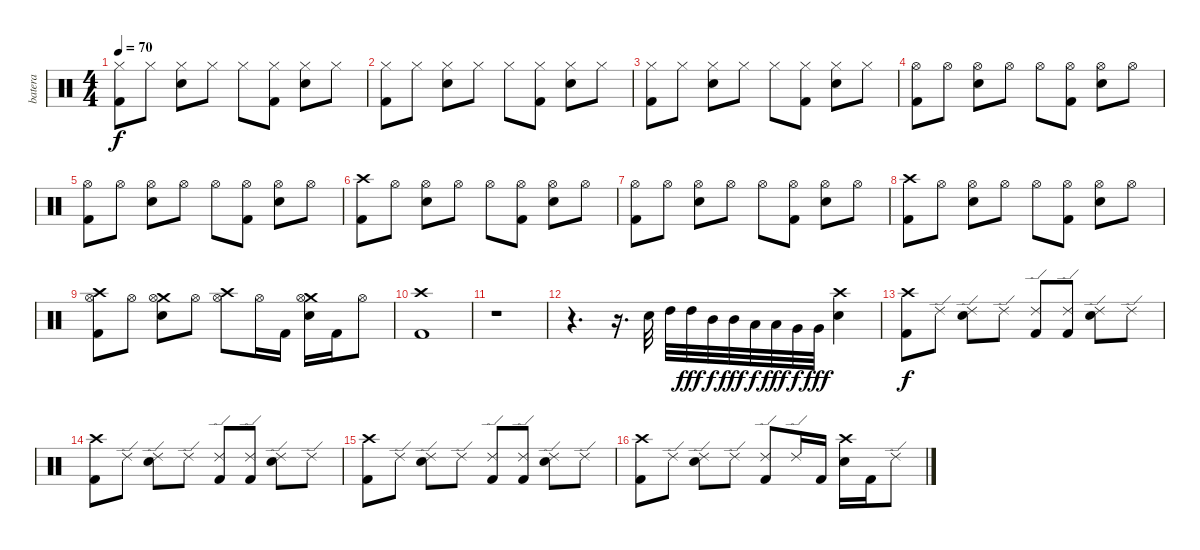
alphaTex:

\track ("batera" "batera") {instrument percussion}
\staff {score}
\articulation defaults
\ts (4 4)
\tempo 70
\clef neutral
\ks c
("Kick (hit) 2" "Hi-Hat (closed)").8{dy f} "Hi-Hat (closed)".8 ("Electric Snare (hit)" "Hi-Hat (closed)").8 "Hi-Hat (closed)".8 "Hi-Hat (closed)".8 ("Kick (hit) 2" "Hi-Hat (closed)").8 ("Electric Snare (hit)" "Hi-Hat (closed)").8 "Hi-Hat (closed)".8 |
("Kick (hit) 2" "Hi-Hat (closed)").8 "Hi-Hat (closed)".8 ("Electric Snare (hit)" "Hi-Hat (closed)").8 "Hi-Hat (closed)".8 "Hi-Hat (closed)".8 ("Kick (hit) 2" "Hi-Hat (closed)").8 ("Electric Snare (hit)" "Hi-Hat (closed)").8 "Hi-Hat (closed)".8 |
("Kick (hit) 2" "Hi-Hat (closed)").8 "Hi-Hat (closed)".8 ("Electric Snare (hit)" "Hi-Hat (closed)").8 "Hi-Hat (closed)".8 "Hi-Hat (closed)".8 ("Kick (hit) 2" "Hi-Hat (closed)").8 ("Electric Snare (hit)" "Hi-Hat (closed)").8 "Hi-Hat (closed)".8 |
("Kick (hit) 2" "Hi-Hat (open)").8 "Hi-Hat (open)".8 ("Electric Snare (hit)" "Hi-Hat (open)").8 "Hi-Hat (open)".8 "Hi-Hat (open)".8 ("Kick (hit) 2" "Hi-Hat (open)").8 ("Electric Snare (hit)" "Hi-Hat (open)").8 "Hi-Hat (open)".8 |
("Kick (hit) 2" "Hi-Hat (open)").8 "Hi-Hat (open)".8 ("Electric Snare (hit)" "Hi-Hat (open)").8 "Hi-Hat (open)".8 "Hi-Hat (open)".8 ("Kick (hit) 2" "Hi-Hat (open)").8 ("Electric Snare (hit)" "Hi-Hat (open)").8 "Hi-Hat (open)".8 |
("Crash high (hit)" "Kick (hit) 2").8 "Hi-Hat (open)".8 ("Electric Snare (hit)" "Hi-Hat (open)").8 "Hi-Hat (open)".8 "Hi-Hat (open)".8 ("Kick (hit) 2" "Hi-Hat (open)").8 ("Electric Snare (hit)" "Hi-Hat (open)").8 "Hi-Hat (open)".8 |
("Kick (hit) 2" "Hi-Hat (open)").8 "Hi-Hat (open)".8 ("Electric Snare (hit)" "Hi-Hat (open)").8 "Hi-Hat (open)".8 "Hi-Hat (open)".8 ("Kick (hit) 2" "Hi-Hat (open)").8 ("Electric Snare (hit)" "Hi-Hat (open)").8 "Hi-Hat (open)".8 |
("Crash high (hit)" "Kick (hit) 2").8 "Hi-Hat (open)".8 ("Electric Snare (hit)" "Hi-Hat (open)").8 "Hi-Hat (open)".8 "Hi-Hat (open)".8 ("Kick (hit) 2" "Hi-Hat (open)").8 ("Electric Snare (hit)" "Hi-Hat (open)").8 "Hi-Hat (open)".8 |
("Crash high (hit)" "Kick (hit) 2" "Hi-Hat (open)").8 "Hi-Hat (open)".8 ("Crash medium (hit)" "Electric Snare (hit)" "Hi-Hat (open)").8 "Hi-Hat (open)".8 ("Crash high (hit)" "Hi-Hat (open)").8 "Hi-Hat (open)".16 "Kick (hit) 2".16 ("Crash medium (hit)" "Electric Snare (hit)" "Hi-Hat (open)").16 "Kick (hit) 2".16 "Hi-Hat (open)".8 |
("Crash high (hit)" "Kick (hit) 2").1 |
r.1 |
r.4{d} r.16{d} "Electric Snare (hit)".32 "High Tom (hit)".32 "High Tom (hit)".32{dy fff} "Mid Tom (hit)".32{dy f} "Mid Tom (hit)".32{dy fff} "Low Tom (hit)".32{dy f} "Low Tom (hit)".32{dy fff} "Very Low Tom (hit)".32{dy f} "Very Low Tom (hit)".32{dy fff} ("Crash high (hit)" "Electric Snare (hit)").4 |
("Crash high (hit)" "Kick (hit) 2").8{dy f} "Ride (edge) 2".8 ("Electric Snare (hit)" "Ride (edge) 2").8 "Ride (edge) 2".8 ("Kick (hit) 2" "Ride (edge) 2").8 ("Kick (hit) 2" "Ride (edge) 2").8 ("Electric Snare (hit)" "Ride (edge) 2").8 "Ride (edge) 2".8 |
("Crash high (hit)" "Kick (hit) 2").8 "Ride (edge) 2".8 ("Electric Snare (hit)" "Ride (edge) 2").8 "Ride (edge) 2".8 ("Kick (hit) 2" "Ride (edge) 2").8 ("Kick (hit) 2" "Ride (edge) 2").8 ("Electric Snare (hit)" "Ride (edge) 2").8 "Ride (edge) 2".8 |
("Crash high (hit)" "Kick (hit) 2").8 "Ride (edge) 2".8 ("Electric Snare (hit)" "Ride (edge) 2").8 "Ride (edge) 2".8 ("Kick (hit) 2" "Ride (edge) 2").8 ("Kick (hit) 2" "Ride (edge) 2").8 ("Electric Snare (hit)" "Ride (edge) 2").8 "Ride (edge) 2".8 |
("Crash high (hit)" "Kick (hit) 2").8 "Ride (edge) 2".8 ("Electric Snare (hit)" "Ride (edge) 2").8 "Ride (edge) 2".8 ("Kick (hit) 2" "Ride (edge) 2").8 "Ride (edge) 2".16 "Kick (hit) 2".16 ("Crash high (hit)" "Electric Snare (hit)").16 "Kick (hit) 2".16 "Ride (edge) 2".8
